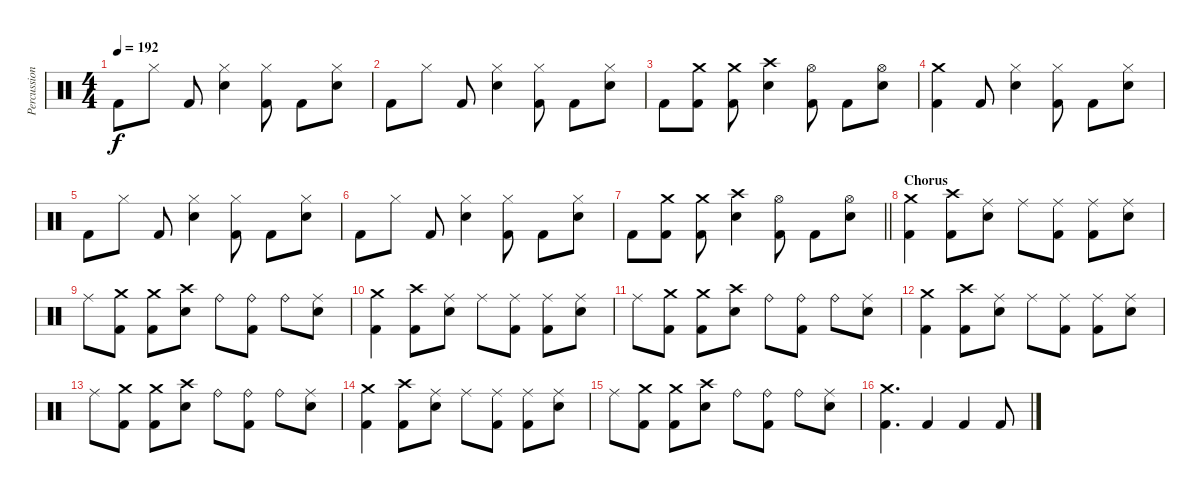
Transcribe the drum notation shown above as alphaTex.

\track ("Percussion" "Percussion") {instrument percussion}
\staff {score}
\articulation defaults
\ts (4 4)
\tempo 192
\clef neutral
\ks c "Kick (hit) 2".8{dy f} "Hi-Hat (closed)".8 "Kick (hit) 2".8
("Hi-Hat (closed)" "Electric Snare (hit)").4 ("Hi-Hat (closed)" "Kick (hit) 2").8 "Kick (hit) 2".8 ("Hi-Hat (closed)" "Electric Snare (hit)").8 |
"Kick (hit) 2".8 "Hi-Hat (closed)".8 "Kick (hit) 2".8 ("Hi-Hat (closed)" "Electric Snare (hit)").4 ("Hi-Hat (closed)" "Kick (hit) 2").8 "Kick (hit) 2".8 ("Hi-Hat (closed)" "Electric Snare (hit)").8 |
"Kick (hit) 2".8 ("Crash medium (hit)" "Kick (hit) 2").8 ("Crash medium (hit)" "Kick (hit) 2").8 ("Crash high (hit)" "Electric Snare (hit)").4 ("Hi-Hat (open)" "Kick (hit) 2").8 "Kick (hit) 2".8 ("Hi-Hat (open)" "Electric Snare (hit)").8 |
("Crash medium (hit)" "Kick (hit) 2").4 "Kick (hit) 2".8 ("Hi-Hat (closed)" "Electric Snare (hit)").4 ("Hi-Hat (closed)" "Kick (hit) 2").8 "Kick (hit) 2".8 ("Hi-Hat (closed)" "Electric Snare (hit)").8 |
"Kick (hit) 2".8 "Hi-Hat (closed)".8 "Kick (hit) 2".8 ("Hi-Hat (closed)" "Electric Snare (hit)").4 ("Hi-Hat (closed)" "Kick (hit) 2").8 "Kick (hit) 2".8 ("Hi-Hat (closed)" "Electric Snare (hit)").8 |
"Kick (hit) 2".8 "Hi-Hat (closed)".8 "Kick (hit) 2".8 ("Hi-Hat (closed)" "Electric Snare (hit)").4 ("Hi-Hat (closed)" "Kick (hit) 2").8 "Kick (hit) 2".8 ("Hi-Hat (closed)" "Electric Snare (hit)").8 |
\barLineRight lightlight "Kick (hit) 2".8
("Crash medium (hit)" "Kick (hit) 2").8 ("Crash medium (hit)" "Kick (hit) 2").8 ("Crash high (hit)" "Electric Snare (hit)").4 ("Hi-Hat (open)" "Kick (hit) 2").8 "Kick (hit) 2".8 ("Hi-Hat (open)" "Electric Snare (hit)").8 |
\section ("" "Chorus")
("Crash medium (hit)" "Kick (hit) 2").4 ("Crash high (hit)" "Kick (hit) 2").8 ("Ride (middle)" "Electric Snare (hit)").8 "Ride (middle)".8 ("Ride (middle)" "Kick (hit) 2").8 ("Ride (middle)" "Kick (hit) 2").8 ("Ride (middle)" "Electric Snare (hit)").8 |
"Ride (middle)".8 ("Crash medium (hit)" "Kick (hit) 2").8 ("Crash medium (hit)" "Kick (hit) 2").8 ("Crash high (hit)" "Electric Snare (hit)").8 "Ride (bell)".8 ("Ride (bell)" "Kick (hit) 2").8 "Ride (bell)".8 ("Ride (middle)" "Electric Snare (hit)").8 |
("Crash medium (hit)" "Kick (hit) 2").4 ("Crash high (hit)" "Kick (hit) 2").8 ("Ride (middle)" "Electric Snare (hit)").8 "Ride (middle)".8 ("Ride (middle)" "Kick (hit) 2").8 ("Ride (middle)" "Kick (hit) 2").8 ("Ride (middle)" "Electric Snare (hit)").8 |
"Ride (middle)".8 ("Crash medium (hit)" "Kick (hit) 2").8 ("Crash medium (hit)" "Kick (hit) 2").8 ("Crash high (hit)" "Electric Snare (hit)").8 "Ride (bell)".8 ("Ride (bell)" "Kick (hit) 2").8 "Ride (bell)".8 ("Ride (middle)" "Electric Snare (hit)").8 |
("Crash medium (hit)" "Kick (hit) 2").4 ("Crash high (hit)" "Kick (hit) 2").8 ("Ride (middle)" "Electric Snare (hit)").8 "Ride (middle)".8 ("Ride (middle)" "Kick (hit) 2").8 ("Ride (middle)" "Kick (hit) 2").8 ("Ride (middle)" "Electric Snare (hit)").8 |
"Ride (middle)".8 ("Crash medium (hit)" "Kick (hit) 2").8 ("Crash medium (hit)" "Kick (hit) 2").8 ("Crash high (hit)" "Electric Snare (hit)").8 "Ride (bell)".8 ("Ride (bell)" "Kick (hit) 2").8 "Ride (bell)".8 ("Ride (middle)" "Electric Snare (hit)").8 |
("Crash medium (hit)" "Kick (hit) 2").4 ("Crash high (hit)" "Kick (hit) 2").8 ("Ride (middle)" "Electric Snare (hit)").8 "Ride (middle)".8 ("Ride (middle)" "Kick (hit) 2").8 ("Ride (middle)" "Kick (hit) 2").8 ("Ride (middle)" "Electric Snare (hit)").8 |
"Ride (middle)".8 ("Crash medium (hit)" "Kick (hit) 2").8 ("Crash medium (hit)" "Kick (hit) 2").8 ("Crash high (hit)" "Electric Snare (hit)").8 "Ride (bell)".8 ("Ride (bell)" "Kick (hit) 2").8 "Ride (bell)".8 ("Ride (middle)" "Electric Snare (hit)").8 |
("Crash medium (hit)" "Kick (hit) 2").4{d} "Kick (hit) 2".4 "Kick (hit) 2".4 "Kick (hit) 2".8
